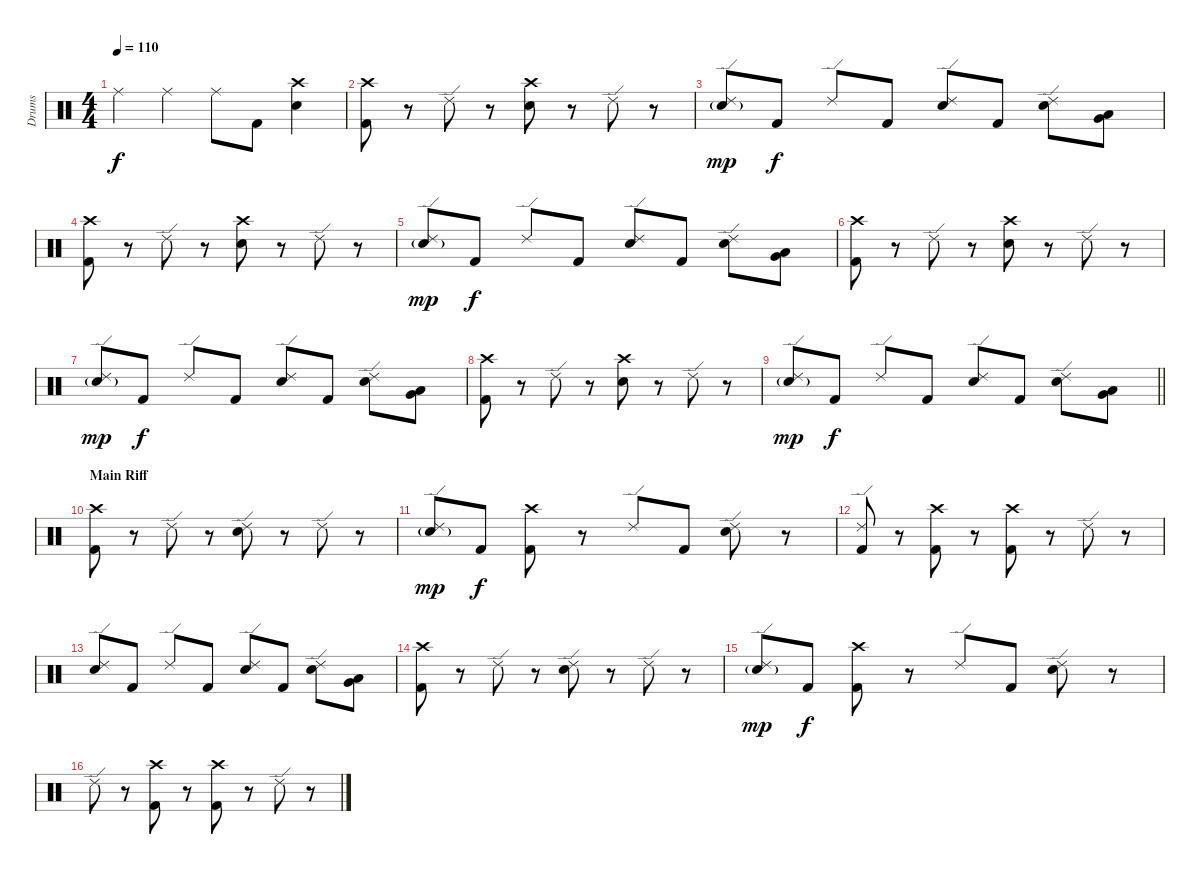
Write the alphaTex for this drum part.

\track ("Drums" "Drums") {instrument percussion}
\staff {score}
\articulation defaults
\ts (4 4)
\tempo 110
\clef neutral
\ks c "Ride (middle)".4{dy f} "Ride (middle)".4 "Ride (middle)".8 "Kick (hit) 2".8
("Crash high (hit)" "Snare (hit) 2").4 |
("Crash high (hit)" "Kick (hit) 2").8 r.8 "Ride (edge) 2".8 r.8 ("Crash high (hit)" "Snare (hit) 2").8 r.8 "Ride (edge) 2".8 r.8 |
("Ride (edge) 2" "Snare (hit) 2"{g}).8{dy mp} "Kick (hit) 2".8{dy f} "Ride (edge) 2".8 "Kick (hit) 2".8 ("Ride (edge) 2" "Snare (hit) 2").8 "Kick (hit) 2".8 ("Ride (edge) 2" "Snare (hit) 2").8 ("Very Low Tom (hit)" "Low Floor Tom (hit)").8 |
("Crash high (hit)" "Kick (hit) 2").8 r.8 "Ride (edge) 2".8 r.8 ("Crash high (hit)" "Snare (hit) 2").8 r.8 "Ride (edge) 2".8 r.8 |
("Ride (edge) 2" "Snare (hit) 2"{g}).8{dy mp} "Kick (hit) 2".8{dy f} "Ride (edge) 2".8 "Kick (hit) 2".8 ("Ride (edge) 2" "Snare (hit) 2").8 "Kick (hit) 2".8 ("Ride (edge) 2" "Snare (hit) 2").8 ("Very Low Tom (hit)" "Low Floor Tom (hit)").8 |
("Crash high (hit)" "Kick (hit) 2").8 r.8 "Ride (edge) 2".8 r.8 ("Crash high (hit)" "Snare (hit) 2").8 r.8 "Ride (edge) 2".8 r.8 |
("Ride (edge) 2" "Snare (hit) 2"{g}).8{dy mp} "Kick (hit) 2".8{dy f} "Ride (edge) 2".8 "Kick (hit) 2".8 ("Ride (edge) 2" "Snare (hit) 2").8 "Kick (hit) 2".8 ("Ride (edge) 2" "Snare (hit) 2").8 ("Very Low Tom (hit)" "Low Floor Tom (hit)").8 |
("Crash high (hit)" "Kick (hit) 2").8 r.8 "Ride (edge) 2".8 r.8 ("Crash high (hit)" "Snare (hit) 2").8 r.8 "Ride (edge) 2".8 r.8 |
\barLineRight lightlight
("Ride (edge) 2" "Snare (hit) 2"{g}).8{dy mp} "Kick (hit) 2".8{dy f} "Ride (edge) 2".8 "Kick (hit) 2".8 ("Ride (edge) 2" "Snare (hit) 2").8 "Kick (hit) 2".8 ("Ride (edge) 2" "Snare (hit) 2").8 ("Very Low Tom (hit)" "Low Floor Tom (hit)").8 |
\section ("" "Main Riff")
("Crash high (hit)" "Kick (hit) 2").8 r.8 "Ride (edge) 2".8 r.8 ("Ride (edge) 2" "Snare (hit) 2").8 r.8 "Ride (edge) 2".8 r.8 |
("Ride (edge) 2" "Snare (hit) 2"{g}).8{dy mp} "Kick (hit) 2".8{dy f} ("Crash high (hit)" "Kick (hit) 2").8 r.8 "Ride (edge) 2".8 "Kick (hit) 2".8 ("Ride (edge) 2" "Snare (hit) 2").8 r.8 |
("Ride (edge) 2" "Kick (hit) 2").8 r.8 ("Crash high (hit)" "Kick (hit) 2").8 r.8 ("Crash high (hit)" "Kick (hit) 2").8 r.8 "Ride (edge) 2".8 r.8 |
("Ride (edge) 2" "Snare (hit) 2").8 "Kick (hit) 2".8 "Ride (edge) 2".8 "Kick (hit) 2".8 ("Ride (edge) 2" "Snare (hit) 2").8 "Kick (hit) 2".8 ("Ride (edge) 2" "Snare (hit) 2").8 ("Very Low Tom (hit)" "Low Floor Tom (hit)").8 |
("Crash high (hit)" "Kick (hit) 2").8 r.8 "Ride (edge) 2".8 r.8 ("Ride (edge) 2" "Snare (hit) 2").8 r.8 "Ride (edge) 2".8 r.8 |
("Ride (edge) 2" "Snare (hit) 2"{g}).8{dy mp} "Kick (hit) 2".8{dy f} ("Crash high (hit)" "Kick (hit) 2").8 r.8 "Ride (edge) 2".8 "Kick (hit) 2".8 ("Ride (edge) 2" "Snare (hit) 2").8 r.8 |
"Ride (edge) 2".8 r.8 ("Crash high (hit)" "Kick (hit) 2").8 r.8 ("Crash high (hit)" "Kick (hit) 2").8 r.8 "Ride (edge) 2".8 r.8
